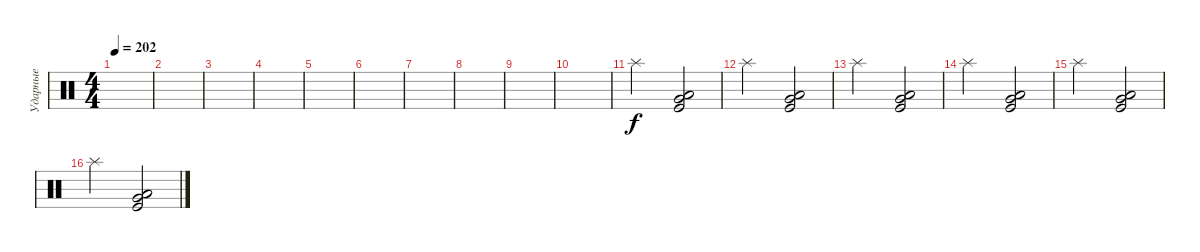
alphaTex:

\track ("Ударные" "Ударные") {instrument percussion}
\staff {score}
\articulation defaults
\ts (4 4)
\tempo 202
\clef neutral
\ks c
|
|
|
|
|
|
|
|
|
|
"Splash (hit)".2 ("Low Tom (hit)" "Very Low Tom (hit)" "Kick (hit)").2 |
"Splash (hit)".2 ("Low Tom (hit)" "Very Low Tom (hit)" "Kick (hit)").2 |
"Splash (hit)".2 ("Low Tom (hit)" "Very Low Tom (hit)" "Kick (hit)").2 |
"Splash (hit)".2 ("Low Tom (hit)" "Very Low Tom (hit)" "Kick (hit)").2 |
"Splash (hit)".2 ("Low Tom (hit)" "Very Low Tom (hit)" "Kick (hit)").2 |
"Splash (hit)".2 ("Low Tom (hit)" "Very Low Tom (hit)" "Kick (hit)").2
